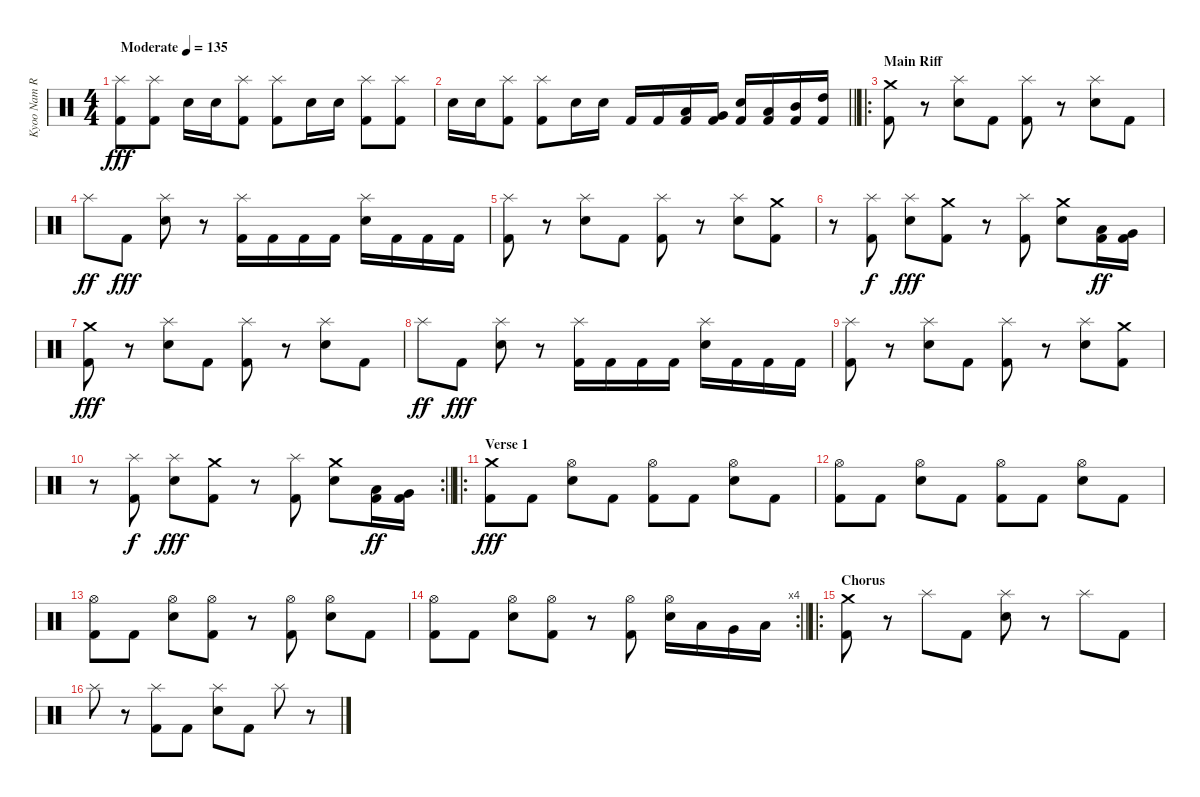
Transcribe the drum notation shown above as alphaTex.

\track ("Kyoo Nam Rossi (Drums)" "Kyoo Nam R") {instrument percussion}
\staff {score}
\articulation defaults
\ts (4 4)
\tempo (135 "Moderate")
\clef neutral
\ks c
("Splash (hit)" "Kick (hit) 2").8{dy fff} ("Splash (hit)" "Kick (hit) 2").8 "Electric Snare (hit)".16 "Electric Snare (hit)".16 ("Splash (hit)" "Kick (hit) 2").8 ("Splash (hit)" "Kick (hit) 2").8 "Electric Snare (hit)".16 "Electric Snare (hit)".16 ("Splash (hit)" "Kick (hit) 2").8 ("Splash (hit)" "Kick (hit) 2").8 |
\barLineRight lightlight "Electric Snare (hit)".16 "Electric Snare (hit)".16
("Splash (hit)" "Kick (hit) 2").8 ("Splash (hit)" "Kick (hit) 2").8 "Electric Snare (hit)".16 "Electric Snare (hit)".16 "Kick (hit) 2".16 "Kick (hit) 2".16 ("Low Tom (hit)" "Kick (hit) 2").16 ("Very Low Tom (hit)" "Kick (hit) 2").16 ("Electric Snare (hit)" "Kick (hit) 2").16 ("Low Tom (hit)" "Kick (hit) 2").16 ("Mid Tom (hit)" "Kick (hit) 2").16 ("High Tom (hit)" "Kick (hit) 2").16 |
\ro
\section ("" "Main Riff")
("Crash medium (hit)" "Kick (hit) 2").8 r.8 ("Splash (hit)" "Electric Snare (hit)").8 "Kick (hit) 2".8 ("Splash (hit)" "Kick (hit) 2").8 r.8 ("Splash (hit)" "Electric Snare (hit)").8 "Kick (hit) 2".8 |
"Splash (hit)".8{dy ff} "Kick (hit) 2".8{dy fff} ("Splash (hit)" "Electric Snare (hit)").8 r.8 ("Splash (hit)" "Kick (hit) 2").16 "Kick (hit) 2".16 "Kick (hit) 2".16 "Kick (hit) 2".16 ("Splash (hit)" "Electric Snare (hit)").16 "Kick (hit) 2".16 "Kick (hit) 2".16 "Kick (hit) 2".16 |
("Splash (hit)" "Kick (hit) 2").8 r.8 ("Splash (hit)" "Electric Snare (hit)").8 "Kick (hit) 2".8 ("Splash (hit)" "Kick (hit) 2").8 r.8 ("Splash (hit)" "Electric Snare (hit)").8 ("Crash medium (hit)" "Kick (hit) 2").8 |
r.8 ("Splash (hit)" "Kick (hit) 2").8{dy f} ("Splash (hit)" "Electric Snare (hit)").8{dy fff} ("Crash medium (hit)" "Kick (hit) 2").8 r.8 ("Splash (hit)" "Kick (hit) 2").8 ("Crash medium (hit)" "Electric Snare (hit)").8 ("Low Tom (hit)" "Kick (hit) 2").16{dy ff} ("Very Low Tom (hit)" "Kick (hit) 2").16 |
("Crash medium (hit)" "Kick (hit) 2").8{dy fff} r.8 ("Splash (hit)" "Electric Snare (hit)").8 "Kick (hit) 2".8 ("Splash (hit)" "Kick (hit) 2").8 r.8 ("Splash (hit)" "Electric Snare (hit)").8 "Kick (hit) 2".8 |
"Splash (hit)".8{dy ff} "Kick (hit) 2".8{dy fff} ("Splash (hit)" "Electric Snare (hit)").8 r.8 ("Splash (hit)" "Kick (hit) 2").16 "Kick (hit) 2".16 "Kick (hit) 2".16 "Kick (hit) 2".16 ("Splash (hit)" "Electric Snare (hit)").16 "Kick (hit) 2".16 "Kick (hit) 2".16 "Kick (hit) 2".16 |
("Splash (hit)" "Kick (hit) 2").8 r.8 ("Splash (hit)" "Electric Snare (hit)").8 "Kick (hit) 2".8 ("Splash (hit)" "Kick (hit) 2").8 r.8 ("Splash (hit)" "Electric Snare (hit)").8 ("Crash medium (hit)" "Kick (hit) 2").8 |
\rc 2
\barLineRight lightlight
r.8 ("Splash (hit)" "Kick (hit) 2").8{dy f} ("Splash (hit)" "Electric Snare (hit)").8{dy fff} ("Crash medium (hit)" "Kick (hit) 2").8 r.8 ("Splash (hit)" "Kick (hit) 2").8 ("Crash medium (hit)" "Electric Snare (hit)").8 ("Low Tom (hit)" "Kick (hit) 2").16{dy ff} ("Very Low Tom (hit)" "Kick (hit) 2").16 |
\ro
\section ("" "Verse 1")
("Crash medium (hit)" "Kick (hit) 2").8{dy fff} "Kick (hit) 2".8 ("Hi-Hat (open)" "Electric Snare (hit)").8 "Kick (hit) 2".8 ("Hi-Hat (open)" "Kick (hit) 2").8 "Kick (hit) 2".8 ("Hi-Hat (open)" "Electric Snare (hit)").8 "Kick (hit) 2".8 |
("Hi-Hat (open)" "Kick (hit) 2").8 "Kick (hit) 2".8 ("Hi-Hat (open)" "Electric Snare (hit)").8 "Kick (hit) 2".8 ("Hi-Hat (open)" "Kick (hit) 2").8 "Kick (hit) 2".8 ("Hi-Hat (open)" "Electric Snare (hit)").8 "Kick (hit) 2".8 |
("Hi-Hat (open)" "Kick (hit) 2").8 "Kick (hit) 2".8 ("Hi-Hat (open)" "Electric Snare (hit)").8 ("Hi-Hat (open)" "Kick (hit) 2").8 r.8 ("Hi-Hat (open)" "Kick (hit) 2").8 ("Hi-Hat (open)" "Electric Snare (hit)").8 "Kick (hit) 2".8 |
\rc 4
\barLineRight lightlight
("Hi-Hat (open)" "Kick (hit) 2").8 "Kick (hit) 2".8 ("Hi-Hat (open)" "Electric Snare (hit)").8 ("Hi-Hat (open)" "Kick (hit) 2").8 r.8 ("Hi-Hat (open)" "Kick (hit) 2").8 ("Hi-Hat (open)" "Electric Snare (hit)").16 "Low Tom (hit)".16 "Very Low Tom (hit)".16 "Low Floor Tom (hit)".16 |
\ro
\section ("" "Chorus")
("Crash medium (hit)" "Kick (hit) 2").8 r.8 "Splash (hit)".8 "Kick (hit) 2".8 ("Splash (hit)" "Electric Snare (hit)").8 r.8 "Splash (hit)".8 "Kick (hit) 2".8 |
"Splash (hit)".8 r.8 ("Splash (hit)" "Kick (hit) 2").8 "Kick (hit) 2".8 ("Splash (hit)" "Electric Snare (hit)").8 "Kick (hit) 2".8 "Splash (hit)".8 r.8
